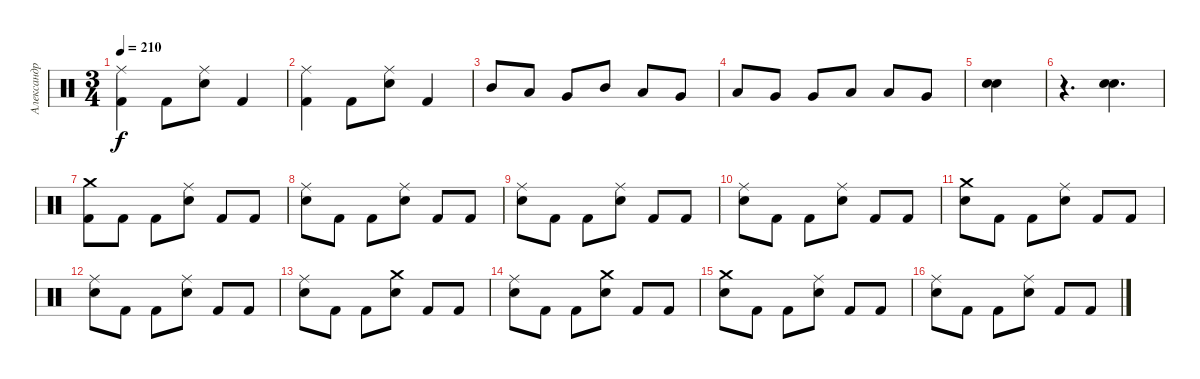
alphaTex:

\track ("Александр Манякин" "Александр ") {instrument percussion}
\staff {score}
\articulation defaults
\ts (3 4)
\tempo 210
\clef neutral
\ks c
("Ride (middle)" "Kick (hit) 2").4{dy f} "Kick (hit) 2".8 ("Ride (middle)" "Snare (hit) 2").8 "Kick (hit) 2".4 |
("Ride (middle)" "Kick (hit) 2").4 "Kick (hit) 2".8 ("Ride (middle)" "Snare (hit) 2").8 "Kick (hit) 2".4 |
"Mid Tom (hit)".8 "Low Tom (hit)".8 "Very Low Tom (hit)".8 "Mid Tom (hit)".8 "Low Tom (hit)".8 "Very Low Tom (hit)".8 |
"Low Tom (hit)".8 "Very Low Tom (hit)".8 "Very Low Tom (hit)".8 "Low Tom (hit)".8 "Low Tom (hit)".8 "Very Low Tom (hit)".8 |
("Snare (hit) 2" "Snare (hit) 2").4{bd 240} |
r.4{d} ("Snare (hit) 2" "Snare (hit) 2").4{d bd 120} |
("Crash medium (hit)" "Kick (hit) 2").8 "Kick (hit) 2".8 "Kick (hit) 2".8 ("Ride (middle)" "Snare (hit) 2").8 "Kick (hit) 2".8 "Kick (hit) 2".8 |
("Ride (middle)" "Snare (hit) 2").8 "Kick (hit) 2".8 "Kick (hit) 2".8 ("Ride (middle)" "Snare (hit) 2").8 "Kick (hit) 2".8 "Kick (hit) 2".8 |
("Ride (middle)" "Snare (hit) 2").8 "Kick (hit) 2".8 "Kick (hit) 2".8 ("Ride (middle)" "Snare (hit) 2").8 "Kick (hit) 2".8 "Kick (hit) 2".8 |
("Ride (middle)" "Snare (hit) 2").8 "Kick (hit) 2".8 "Kick (hit) 2".8 ("Ride (middle)" "Snare (hit) 2").8 "Kick (hit) 2".8 "Kick (hit) 2".8 |
("Crash medium (hit)" "Snare (hit) 2").8 "Kick (hit) 2".8 "Kick (hit) 2".8 ("Ride (middle)" "Snare (hit) 2").8 "Kick (hit) 2".8 "Kick (hit) 2".8 |
("Ride (middle)" "Snare (hit) 2").8 "Kick (hit) 2".8 "Kick (hit) 2".8 ("Ride (middle)" "Snare (hit) 2").8 "Kick (hit) 2".8 "Kick (hit) 2".8 |
("Ride (middle)" "Snare (hit) 2").8 "Kick (hit) 2".8 "Kick (hit) 2".8 ("Crash medium (hit)" "Snare (hit) 2").8 "Kick (hit) 2".8 "Kick (hit) 2".8 |
("Ride (middle)" "Snare (hit) 2").8 "Kick (hit) 2".8 "Kick (hit) 2".8 ("Crash medium (hit)" "Snare (hit) 2").8 "Kick (hit) 2".8 "Kick (hit) 2".8 |
("Crash medium (hit)" "Snare (hit) 2").8 "Kick (hit) 2".8 "Kick (hit) 2".8 ("Ride (middle)" "Snare (hit) 2").8 "Kick (hit) 2".8 "Kick (hit) 2".8 |
("Ride (middle)" "Snare (hit) 2").8 "Kick (hit) 2".8 "Kick (hit) 2".8 ("Ride (middle)" "Snare (hit) 2").8 "Kick (hit) 2".8 "Kick (hit) 2".8
